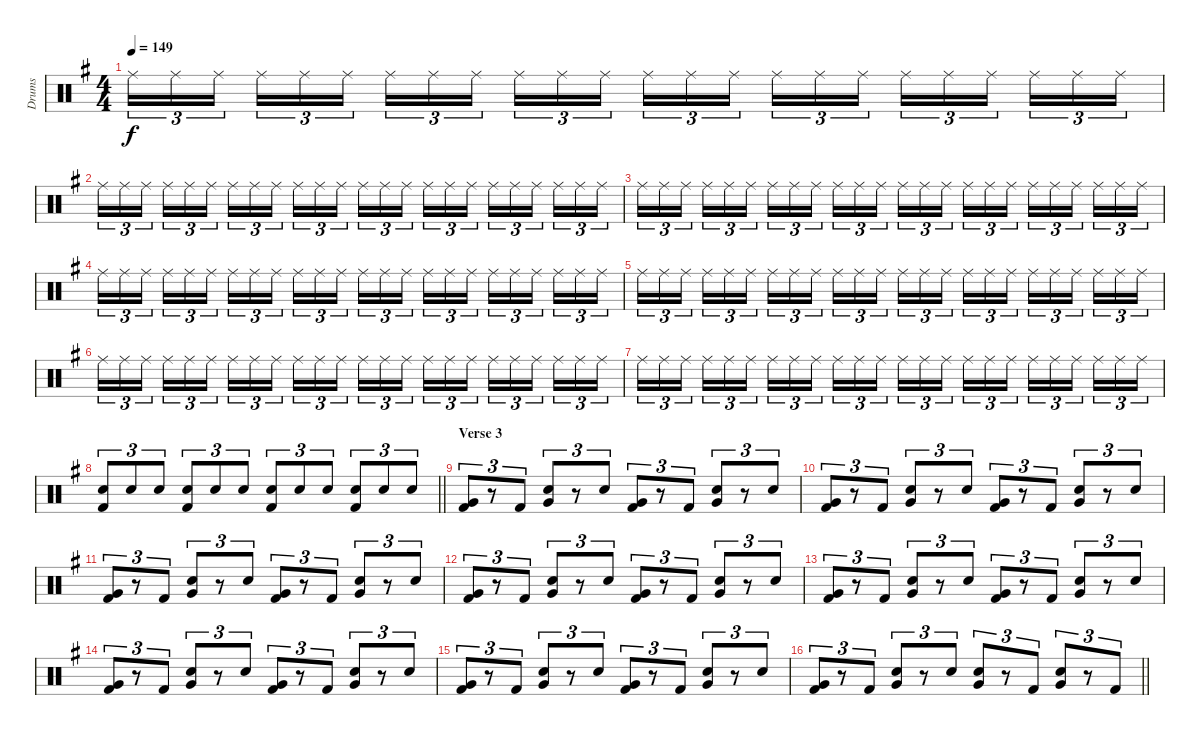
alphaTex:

\track ("Drums" "Drums") {instrument percussion}
\staff {score}
\articulation defaults
\ts (4 4)
\tempo 149
\clef neutral
\ks g "Ride (middle)".16{tu (3 2) dy f} "Ride (middle)".16{tu (3 2)} "Ride (middle)".16{tu (3 2) beam splitsecondary} "Ride (middle)".16{tu (3 2)} "Ride (middle)".16{tu (3 2)} "Ride (middle)".16{tu (3 2)} "Ride (middle)".16{tu (3 2)} "Ride (middle)".16{tu (3 2)} "Ride (middle)".16{tu (3 2) beam splitsecondary} "Ride (middle)".16{tu (3 2)} "Ride (middle)".16{tu (3 2)} "Ride (middle)".16{tu (3 2)} "Ride (middle)".16{tu (3 2)} "Ride (middle)".16{tu (3 2)} "Ride (middle)".16{tu (3 2) beam splitsecondary} "Ride (middle)".16{tu (3 2)} "Ride (middle)".16{tu (3 2)} "Ride (middle)".16{tu (3 2)} "Ride (middle)".16{tu (3 2)} "Ride (middle)".16{tu (3 2)} "Ride (middle)".16{tu (3 2) beam splitsecondary} "Ride (middle)".16{tu (3 2)} "Ride (middle)".16{tu (3 2)} "Ride (middle)".16{tu (3 2)}
|
"Ride (middle)".16{tu (3 2)} "Ride (middle)".16{tu (3 2)} "Ride (middle)".16{tu (3 2) beam splitsecondary} "Ride (middle)".16{tu (3 2)} "Ride (middle)".16{tu (3 2)} "Ride (middle)".16{tu (3 2)} "Ride (middle)".16{tu (3 2)} "Ride (middle)".16{tu (3 2)} "Ride (middle)".16{tu (3 2) beam splitsecondary} "Ride (middle)".16{tu (3 2)} "Ride (middle)".16{tu (3 2)} "Ride (middle)".16{tu (3 2)} "Ride (middle)".16{tu (3 2)} "Ride (middle)".16{tu (3 2)} "Ride (middle)".16{tu (3 2) beam splitsecondary} "Ride (middle)".16{tu (3 2)} "Ride (middle)".16{tu (3 2)} "Ride (middle)".16{tu (3 2)} "Ride (middle)".16{tu (3 2)} "Ride (middle)".16{tu (3 2)} "Ride (middle)".16{tu (3 2) beam splitsecondary} "Ride (middle)".16{tu (3 2)} "Ride (middle)".16{tu (3 2)} "Ride (middle)".16{tu (3 2)} |
"Ride (middle)".16{tu (3 2)} "Ride (middle)".16{tu (3 2)} "Ride (middle)".16{tu (3 2) beam splitsecondary} "Ride (middle)".16{tu (3 2)} "Ride (middle)".16{tu (3 2)} "Ride (middle)".16{tu (3 2)} "Ride (middle)".16{tu (3 2)} "Ride (middle)".16{tu (3 2)} "Ride (middle)".16{tu (3 2) beam splitsecondary} "Ride (middle)".16{tu (3 2)} "Ride (middle)".16{tu (3 2)} "Ride (middle)".16{tu (3 2)} "Ride (middle)".16{tu (3 2)} "Ride (middle)".16{tu (3 2)} "Ride (middle)".16{tu (3 2) beam splitsecondary} "Ride (middle)".16{tu (3 2)} "Ride (middle)".16{tu (3 2)} "Ride (middle)".16{tu (3 2)} "Ride (middle)".16{tu (3 2)} "Ride (middle)".16{tu (3 2)} "Ride (middle)".16{tu (3 2) beam splitsecondary} "Ride (middle)".16{tu (3 2)} "Ride (middle)".16{tu (3 2)} "Ride (middle)".16{tu (3 2)} |
"Ride (middle)".16{tu (3 2)} "Ride (middle)".16{tu (3 2)} "Ride (middle)".16{tu (3 2) beam splitsecondary} "Ride (middle)".16{tu (3 2)} "Ride (middle)".16{tu (3 2)} "Ride (middle)".16{tu (3 2)} "Ride (middle)".16{tu (3 2)} "Ride (middle)".16{tu (3 2)} "Ride (middle)".16{tu (3 2) beam splitsecondary} "Ride (middle)".16{tu (3 2)} "Ride (middle)".16{tu (3 2)} "Ride (middle)".16{tu (3 2)} "Ride (middle)".16{tu (3 2)} "Ride (middle)".16{tu (3 2)} "Ride (middle)".16{tu (3 2) beam splitsecondary} "Ride (middle)".16{tu (3 2)} "Ride (middle)".16{tu (3 2)} "Ride (middle)".16{tu (3 2)} "Ride (middle)".16{tu (3 2)} "Ride (middle)".16{tu (3 2)} "Ride (middle)".16{tu (3 2) beam splitsecondary} "Ride (middle)".16{tu (3 2)} "Ride (middle)".16{tu (3 2)} "Ride (middle)".16{tu (3 2)} |
"Ride (middle)".16{tu (3 2)} "Ride (middle)".16{tu (3 2)} "Ride (middle)".16{tu (3 2) beam splitsecondary} "Ride (middle)".16{tu (3 2)} "Ride (middle)".16{tu (3 2)} "Ride (middle)".16{tu (3 2)} "Ride (middle)".16{tu (3 2)} "Ride (middle)".16{tu (3 2)} "Ride (middle)".16{tu (3 2) beam splitsecondary} "Ride (middle)".16{tu (3 2)} "Ride (middle)".16{tu (3 2)} "Ride (middle)".16{tu (3 2)} "Ride (middle)".16{tu (3 2)} "Ride (middle)".16{tu (3 2)} "Ride (middle)".16{tu (3 2) beam splitsecondary} "Ride (middle)".16{tu (3 2)} "Ride (middle)".16{tu (3 2)} "Ride (middle)".16{tu (3 2)} "Ride (middle)".16{tu (3 2)} "Ride (middle)".16{tu (3 2)} "Ride (middle)".16{tu (3 2) beam splitsecondary} "Ride (middle)".16{tu (3 2)} "Ride (middle)".16{tu (3 2)} "Ride (middle)".16{tu (3 2)} |
"Ride (middle)".16{tu (3 2)} "Ride (middle)".16{tu (3 2)} "Ride (middle)".16{tu (3 2) beam splitsecondary} "Ride (middle)".16{tu (3 2)} "Ride (middle)".16{tu (3 2)} "Ride (middle)".16{tu (3 2)} "Ride (middle)".16{tu (3 2)} "Ride (middle)".16{tu (3 2)} "Ride (middle)".16{tu (3 2) beam splitsecondary} "Ride (middle)".16{tu (3 2)} "Ride (middle)".16{tu (3 2)} "Ride (middle)".16{tu (3 2)} "Ride (middle)".16{tu (3 2)} "Ride (middle)".16{tu (3 2)} "Ride (middle)".16{tu (3 2) beam splitsecondary} "Ride (middle)".16{tu (3 2)} "Ride (middle)".16{tu (3 2)} "Ride (middle)".16{tu (3 2)} "Ride (middle)".16{tu (3 2)} "Ride (middle)".16{tu (3 2)} "Ride (middle)".16{tu (3 2) beam splitsecondary} "Ride (middle)".16{tu (3 2)} "Ride (middle)".16{tu (3 2)} "Ride (middle)".16{tu (3 2)} |
"Ride (middle)".16{tu (3 2)} "Ride (middle)".16{tu (3 2)} "Ride (middle)".16{tu (3 2) beam splitsecondary} "Ride (middle)".16{tu (3 2)} "Ride (middle)".16{tu (3 2)} "Ride (middle)".16{tu (3 2)} "Ride (middle)".16{tu (3 2)} "Ride (middle)".16{tu (3 2)} "Ride (middle)".16{tu (3 2) beam splitsecondary} "Ride (middle)".16{tu (3 2)} "Ride (middle)".16{tu (3 2)} "Ride (middle)".16{tu (3 2)} "Ride (middle)".16{tu (3 2)} "Ride (middle)".16{tu (3 2)} "Ride (middle)".16{tu (3 2) beam splitsecondary} "Ride (middle)".16{tu (3 2)} "Ride (middle)".16{tu (3 2)} "Ride (middle)".16{tu (3 2)} "Ride (middle)".16{tu (3 2)} "Ride (middle)".16{tu (3 2)} "Ride (middle)".16{tu (3 2) beam splitsecondary} "Ride (middle)".16{tu (3 2)} "Ride (middle)".16{tu (3 2)} "Ride (middle)".16{tu (3 2)} |
\barLineRight lightlight
("Electric Snare (hit)" "Kick (hit) 2").8{tu (3 2)} "Electric Snare (hit)".8{tu (3 2)} "Electric Snare (hit)".8{tu (3 2)} ("Electric Snare (hit)" "Kick (hit) 2").8{tu (3 2)} "Electric Snare (hit)".8{tu (3 2)} "Electric Snare (hit)".8{tu (3 2)} ("Electric Snare (hit)" "Kick (hit) 2").8{tu (3 2)} "Electric Snare (hit)".8{tu (3 2)} "Electric Snare (hit)".8{tu (3 2)} ("Electric Snare (hit)" "Kick (hit) 2").8{tu (3 2)} "Electric Snare (hit)".8{tu (3 2)} "Electric Snare (hit)".8{tu (3 2)} |
\section ("" "Verse 3")
("Very Low Tom (hit)" "Kick (hit) 2").8{tu (3 2)} r.8{tu (3 2)} "Kick (hit) 2".8{tu (3 2)} ("Electric Snare (hit)" "Very Low Tom (hit)").8{tu (3 2)} r.8{tu (3 2)} "Electric Snare (hit)".8{tu (3 2)} ("Very Low Tom (hit)" "Kick (hit) 2").8{tu (3 2)} r.8{tu (3 2)} "Kick (hit) 2".8{tu (3 2)} ("Electric Snare (hit)" "Very Low Tom (hit)").8{tu (3 2)} r.8{tu (3 2)} "Electric Snare (hit)".8{tu (3 2)} |
("Very Low Tom (hit)" "Kick (hit) 2").8{tu (3 2)} r.8{tu (3 2)} "Kick (hit) 2".8{tu (3 2)} ("Electric Snare (hit)" "Very Low Tom (hit)").8{tu (3 2)} r.8{tu (3 2)} "Electric Snare (hit)".8{tu (3 2)} ("Very Low Tom (hit)" "Kick (hit) 2").8{tu (3 2)} r.8{tu (3 2)} "Kick (hit) 2".8{tu (3 2)} ("Electric Snare (hit)" "Very Low Tom (hit)").8{tu (3 2)} r.8{tu (3 2)} "Electric Snare (hit)".8{tu (3 2)} |
("Very Low Tom (hit)" "Kick (hit) 2").8{tu (3 2)} r.8{tu (3 2)} "Kick (hit) 2".8{tu (3 2)} ("Electric Snare (hit)" "Very Low Tom (hit)").8{tu (3 2)} r.8{tu (3 2)} "Electric Snare (hit)".8{tu (3 2)} ("Very Low Tom (hit)" "Kick (hit) 2").8{tu (3 2)} r.8{tu (3 2)} "Kick (hit) 2".8{tu (3 2)} ("Electric Snare (hit)" "Very Low Tom (hit)").8{tu (3 2)} r.8{tu (3 2)} "Electric Snare (hit)".8{tu (3 2)} |
("Very Low Tom (hit)" "Kick (hit) 2").8{tu (3 2)} r.8{tu (3 2)} "Kick (hit) 2".8{tu (3 2)} ("Electric Snare (hit)" "Very Low Tom (hit)").8{tu (3 2)} r.8{tu (3 2)} "Electric Snare (hit)".8{tu (3 2)} ("Very Low Tom (hit)" "Kick (hit) 2").8{tu (3 2)} r.8{tu (3 2)} "Kick (hit) 2".8{tu (3 2)} ("Electric Snare (hit)" "Very Low Tom (hit)").8{tu (3 2)} r.8{tu (3 2)} "Electric Snare (hit)".8{tu (3 2)} |
("Very Low Tom (hit)" "Kick (hit) 2").8{tu (3 2)} r.8{tu (3 2)} "Kick (hit) 2".8{tu (3 2)} ("Electric Snare (hit)" "Very Low Tom (hit)").8{tu (3 2)} r.8{tu (3 2)} "Electric Snare (hit)".8{tu (3 2)} ("Very Low Tom (hit)" "Kick (hit) 2").8{tu (3 2)} r.8{tu (3 2)} "Kick (hit) 2".8{tu (3 2)} ("Electric Snare (hit)" "Very Low Tom (hit)").8{tu (3 2)} r.8{tu (3 2)} "Electric Snare (hit)".8{tu (3 2)} |
("Very Low Tom (hit)" "Kick (hit) 2").8{tu (3 2)} r.8{tu (3 2)} "Kick (hit) 2".8{tu (3 2)} ("Electric Snare (hit)" "Very Low Tom (hit)").8{tu (3 2)} r.8{tu (3 2)} "Electric Snare (hit)".8{tu (3 2)} ("Very Low Tom (hit)" "Kick (hit) 2").8{tu (3 2)} r.8{tu (3 2)} "Kick (hit) 2".8{tu (3 2)} ("Electric Snare (hit)" "Very Low Tom (hit)").8{tu (3 2)} r.8{tu (3 2)} "Electric Snare (hit)".8{tu (3 2)} |
("Very Low Tom (hit)" "Kick (hit) 2").8{tu (3 2)} r.8{tu (3 2)} "Kick (hit) 2".8{tu (3 2)} ("Electric Snare (hit)" "Very Low Tom (hit)").8{tu (3 2)} r.8{tu (3 2)} "Electric Snare (hit)".8{tu (3 2)} ("Very Low Tom (hit)" "Kick (hit) 2").8{tu (3 2)} r.8{tu (3 2)} "Kick (hit) 2".8{tu (3 2)} ("Electric Snare (hit)" "Very Low Tom (hit)").8{tu (3 2)} r.8{tu (3 2)} "Electric Snare (hit)".8{tu (3 2)} |
\barLineRight lightlight
("Very Low Tom (hit)" "Kick (hit) 2").8{tu (3 2)} r.8{tu (3 2)} "Kick (hit) 2".8{tu (3 2)} ("Electric Snare (hit)" "Very Low Tom (hit)").8{tu (3 2)} r.8{tu (3 2)} "Electric Snare (hit)".8{tu (3 2)} ("Electric Snare (hit)" "Very Low Tom (hit)").8{tu (3 2)} r.8{tu (3 2)} "Kick (hit) 2".8{tu (3 2)} ("Electric Snare (hit)" "Very Low Tom (hit)").8{tu (3 2)} r.8{tu (3 2)} "Kick (hit) 2".8{tu (3 2)}
